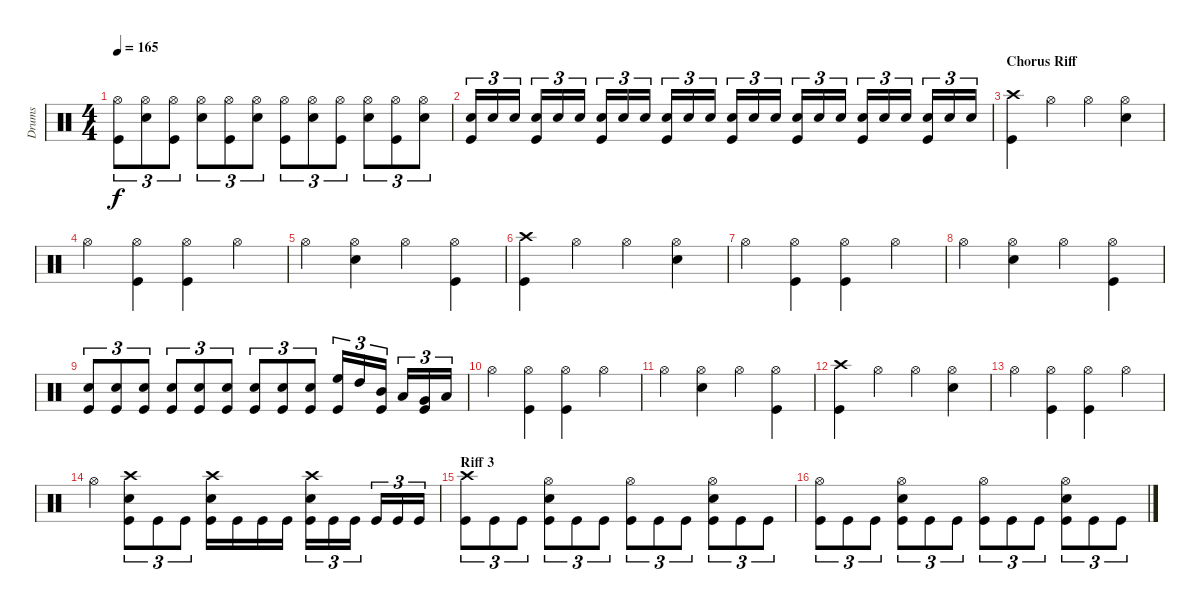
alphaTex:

\track ("Drums" "Drums") {instrument percussion}
\staff {score}
\articulation defaults
\ts (4 4)
\tempo 165
\clef neutral
\ks c
("Hi-Hat (open)" "Kick (hit)").8{tu (3 2) dy f} ("Hi-Hat (open)" "Electric Snare (hit)").8{tu (3 2)} ("Hi-Hat (open)" "Kick (hit)").8{tu (3 2)} ("Hi-Hat (open)" "Electric Snare (hit)").8{tu (3 2)} ("Hi-Hat (open)" "Kick (hit)").8{tu (3 2)} ("Hi-Hat (open)" "Electric Snare (hit)").8{tu (3 2)} ("Hi-Hat (open)" "Kick (hit)").8{tu (3 2)} ("Hi-Hat (open)" "Electric Snare (hit)").8{tu (3 2)} ("Hi-Hat (open)" "Kick (hit)").8{tu (3 2)} ("Hi-Hat (open)" "Electric Snare (hit)").8{tu (3 2)} ("Hi-Hat (open)" "Kick (hit)").8{tu (3 2)} ("Hi-Hat (open)" "Electric Snare (hit)").8{tu (3 2)} |
("Electric Snare (hit)" "Kick (hit)").16{tu (3 2)} "Electric Snare (hit)".16{tu (3 2)} "Electric Snare (hit)".16{tu (3 2)} ("Electric Snare (hit)" "Kick (hit)").16{tu (3 2)} "Electric Snare (hit)".16{tu (3 2)} "Electric Snare (hit)".16{tu (3 2)} ("Electric Snare (hit)" "Kick (hit)").16{tu (3 2)} "Electric Snare (hit)".16{tu (3 2)} "Electric Snare (hit)".16{tu (3 2)} ("Electric Snare (hit)" "Kick (hit)").16{tu (3 2)} "Electric Snare (hit)".16{tu (3 2)} "Electric Snare (hit)".16{tu (3 2)} ("Electric Snare (hit)" "Kick (hit)").16{tu (3 2)} "Electric Snare (hit)".16{tu (3 2)} "Electric Snare (hit)".16{tu (3 2)} ("Electric Snare (hit)" "Kick (hit)").16{tu (3 2)} "Electric Snare (hit)".16{tu (3 2)} "Electric Snare (hit)".16{tu (3 2)} ("Electric Snare (hit)" "Kick (hit)").16{tu (3 2)} "Electric Snare (hit)".16{tu (3 2)} "Electric Snare (hit)".16{tu (3 2)} ("Electric Snare (hit)" "Kick (hit)").16{tu (3 2)} "Electric Snare (hit)".16{tu (3 2)} "Electric Snare (hit)".16{tu (3 2)} |
\section ("" "Chorus Riff")
("Crash high (hit)" "Kick (hit)").4 "Hi-Hat (open)".4 "Hi-Hat (open)".4 ("Hi-Hat (open)" "Electric Snare (hit)").4 |
"Hi-Hat (open)".4 ("Hi-Hat (open)" "Kick (hit)").4 ("Hi-Hat (open)" "Kick (hit)").4 "Hi-Hat (open)".4 |
"Hi-Hat (open)".4 ("Hi-Hat (open)" "Electric Snare (hit)").4 "Hi-Hat (open)".4 ("Hi-Hat (open)" "Kick (hit)").4 |
("Crash high (hit)" "Kick (hit)").4 "Hi-Hat (open)".4 "Hi-Hat (open)".4 ("Hi-Hat (open)" "Electric Snare (hit)").4 |
"Hi-Hat (open)".4 ("Hi-Hat (open)" "Kick (hit)").4 ("Hi-Hat (open)" "Kick (hit)").4 "Hi-Hat (open)".4 |
"Hi-Hat (open)".4 ("Hi-Hat (open)" "Electric Snare (hit)").4 "Hi-Hat (open)".4 ("Hi-Hat (open)" "Kick (hit)").4 |
("Electric Snare (hit)" "Kick (hit)").8{tu (3 2)} ("Electric Snare (hit)" "Kick (hit)").8{tu (3 2)} ("Electric Snare (hit)" "Kick (hit)").8{tu (3 2)} ("Electric Snare (hit)" "Kick (hit)").8{tu (3 2)} ("Electric Snare (hit)" "Kick (hit)").8{tu (3 2)} ("Electric Snare (hit)" "Kick (hit)").8{tu (3 2)} ("Electric Snare (hit)" "Kick (hit)").8{tu (3 2)} ("Electric Snare (hit)" "Kick (hit)").8{tu (3 2)} ("Electric Snare (hit)" "Kick (hit)").8{tu (3 2)} ("High Floor Tom (hit)" "Kick (hit)").16{tu (3 2)} "High Tom (hit)".16{tu (3 2)} ("Mid Tom (hit)" "Kick (hit)").16{tu (3 2)} "Low Tom (hit)".16{tu (3 2)} ("Very Low Tom (hit)" "Kick (hit)").16{tu (3 2)} "Low Floor Tom (hit)".16{tu (3 2)} |
"Hi-Hat (open)".4 ("Hi-Hat (open)" "Kick (hit)").4 ("Hi-Hat (open)" "Kick (hit)").4 "Hi-Hat (open)".4 |
"Hi-Hat (open)".4 ("Hi-Hat (open)" "Electric Snare (hit)").4 "Hi-Hat (open)".4 ("Hi-Hat (open)" "Kick (hit)").4 |
("Crash high (hit)" "Kick (hit)").4 "Hi-Hat (open)".4 "Hi-Hat (open)".4 ("Hi-Hat (open)" "Electric Snare (hit)").4 |
"Hi-Hat (open)".4 ("Hi-Hat (open)" "Kick (hit)").4 ("Hi-Hat (open)" "Kick (hit)").4 "Hi-Hat (open)".4 |
"Hi-Hat (open)".4 ("Crash high (hit)" "Electric Snare (hit)" "Kick (hit)").8{tu (3 2)} "Kick (hit)".8{tu (3 2)} "Kick (hit)".8{tu (3 2)} ("Crash high (hit)" "Electric Snare (hit)" "Kick (hit)").16 "Kick (hit)".16 "Kick (hit)".16 "Kick (hit)".16 ("Crash high (hit)" "Electric Snare (hit)" "Kick (hit)").16{tu (3 2)} "Kick (hit)".16{tu (3 2)} "Kick (hit)".16{tu (3 2)} "Kick (hit)".16{tu (3 2)} "Kick (hit)".16{tu (3 2)} "Kick (hit)".16{tu (3 2)} |
\section ("" "Riff 3")
("Crash high (hit)" "Kick (hit)").8{tu (3 2)} "Kick (hit)".8{tu (3 2)} "Kick (hit)".8{tu (3 2)} ("Hi-Hat (open)" "Electric Snare (hit)" "Kick (hit)").8{tu (3 2)} "Kick (hit)".8{tu (3 2)} "Kick (hit)".8{tu (3 2)} ("Hi-Hat (open)" "Kick (hit)").8{tu (3 2)} "Kick (hit)".8{tu (3 2)} "Kick (hit)".8{tu (3 2)} ("Hi-Hat (open)" "Electric Snare (hit)" "Kick (hit)").8{tu (3 2)} "Kick (hit)".8{tu (3 2)} "Kick (hit)".8{tu (3 2)} |
("Hi-Hat (open)" "Kick (hit)").8{tu (3 2)} "Kick (hit)".8{tu (3 2)} "Kick (hit)".8{tu (3 2)} ("Hi-Hat (open)" "Electric Snare (hit)" "Kick (hit)").8{tu (3 2)} "Kick (hit)".8{tu (3 2)} "Kick (hit)".8{tu (3 2)} ("Hi-Hat (open)" "Kick (hit)").8{tu (3 2)} "Kick (hit)".8{tu (3 2)} "Kick (hit)".8{tu (3 2)} ("Hi-Hat (open)" "Electric Snare (hit)" "Kick (hit)").8{tu (3 2)} "Kick (hit)".8{tu (3 2)} "Kick (hit)".8{tu (3 2)}
